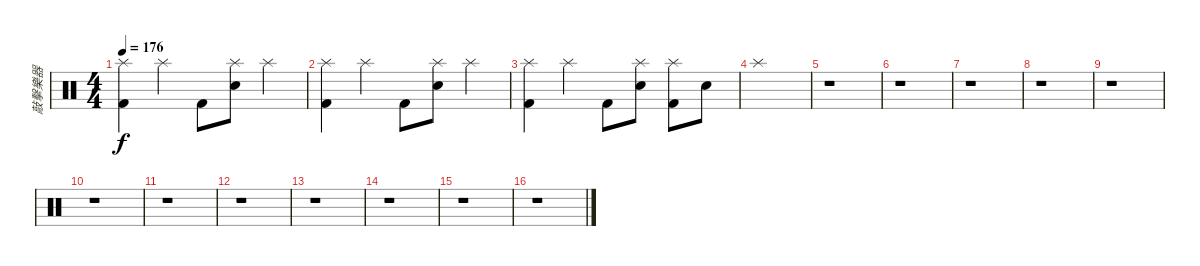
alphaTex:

\track ("敲擊樂器" "敲擊樂器") {instrument percussion}
\staff {score}
\articulation defaults
\ts (4 4)
\tempo 176
\clef neutral
\ks c
("Splash (hit)" "Kick (hit) 2").4{dy f} "Splash (hit)".4 "Kick (hit) 2".8 ("Splash (hit)" "Snare (hit) 2").8 "Splash (hit)".4 |
("Splash (hit)" "Kick (hit) 2").4 "Splash (hit)".4 "Kick (hit) 2".8 ("Splash (hit)" "Snare (hit) 2").8 "Splash (hit)".4 |
("Splash (hit)" "Kick (hit) 2").4 "Splash (hit)".4 "Kick (hit) 2".8 ("Splash (hit)" "Snare (hit) 2").8 ("Splash (hit)" "Kick (hit) 2").8 "Snare (hit) 2".8 |
"Splash (hit)".1 |
r.1 |
r.1 |
r.1 |
r.1 |
r.1 |
r.1 |
r.1 |
r.1 |
r.1 |
r.1 |
r.1 |
r.1
